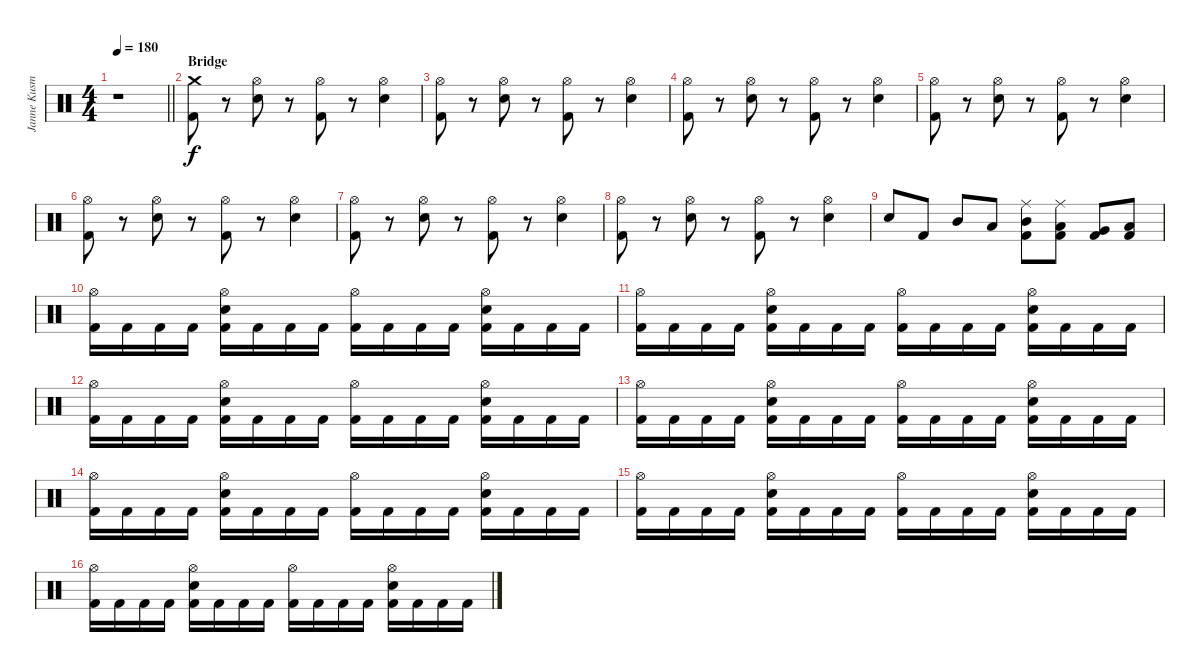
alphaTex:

\track ("Janne Kusmin" "Janne Kusm") {instrument percussion}
\staff {score}
\articulation defaults
\ts (4 4)
\tempo 180
\clef neutral
\barLineRight lightlight
\ks c
r.1{dy f} |
\section ("" "Bridge")
("Kick (hit) 2" "Crash medium (hit)").8 r.8 ("Electric Snare (hit)" "Hi-Hat (open)").8 r.8 ("Kick (hit) 2" "Hi-Hat (open)").8 r.8 ("Electric Snare (hit)" "Hi-Hat (open)").4 |
("Kick (hit) 2" "Hi-Hat (open)").8 r.8 ("Electric Snare (hit)" "Hi-Hat (open)").8 r.8 ("Kick (hit) 2" "Hi-Hat (open)").8 r.8 ("Electric Snare (hit)" "Hi-Hat (open)").4 |
("Kick (hit) 2" "Hi-Hat (open)").8 r.8 ("Electric Snare (hit)" "Hi-Hat (open)").8 r.8 ("Kick (hit) 2" "Hi-Hat (open)").8 r.8 ("Electric Snare (hit)" "Hi-Hat (open)").4 |
("Kick (hit) 2" "Hi-Hat (open)").8 r.8 ("Electric Snare (hit)" "Hi-Hat (open)").8 r.8 ("Kick (hit) 2" "Hi-Hat (open)").8 r.8 ("Electric Snare (hit)" "Hi-Hat (open)").4 |
("Kick (hit) 2" "Hi-Hat (open)").8 r.8 ("Electric Snare (hit)" "Hi-Hat (open)").8 r.8 ("Kick (hit) 2" "Hi-Hat (open)").8 r.8 ("Electric Snare (hit)" "Hi-Hat (open)").4 |
("Kick (hit) 2" "Hi-Hat (open)").8 r.8 ("Electric Snare (hit)" "Hi-Hat (open)").8 r.8 ("Kick (hit) 2" "Hi-Hat (open)").8 r.8 ("Electric Snare (hit)" "Hi-Hat (open)").4 |
("Kick (hit) 2" "Hi-Hat (open)").8 r.8 ("Electric Snare (hit)" "Hi-Hat (open)").8 r.8 ("Kick (hit) 2" "Hi-Hat (open)").8 r.8 ("Electric Snare (hit)" "Hi-Hat (open)").4 |
"Electric Snare (hit)".8 "Kick (hit) 2".8 "Mid Tom (hit)".8 "Low Tom (hit)".8 ("Kick (hit) 2" "Mid Tom (hit)" "Ride (middle)").8 ("Kick (hit) 2" "Low Tom (hit)" "Ride (middle)").8 ("Kick (hit) 2" "Very Low Tom (hit)").8 ("Kick (hit) 2" "Low Floor Tom (hit)").8 |
("Kick (hit) 2" "Hi-Hat (open)").16 "Kick (hit) 2".16 "Kick (hit) 2".16 "Kick (hit) 2".16 ("Kick (hit) 2" "Hi-Hat (open)" "Electric Snare (hit)").16 "Kick (hit) 2".16 "Kick (hit) 2".16 "Kick (hit) 2".16 ("Kick (hit) 2" "Hi-Hat (open)").16 "Kick (hit) 2".16 "Kick (hit) 2".16 "Kick (hit) 2".16 ("Kick (hit) 2" "Hi-Hat (open)" "Electric Snare (hit)").16 "Kick (hit) 2".16 "Kick (hit) 2".16 "Kick (hit) 2".16 |
("Kick (hit) 2" "Hi-Hat (open)").16 "Kick (hit) 2".16 "Kick (hit) 2".16 "Kick (hit) 2".16 ("Kick (hit) 2" "Hi-Hat (open)" "Electric Snare (hit)").16 "Kick (hit) 2".16 "Kick (hit) 2".16 "Kick (hit) 2".16 ("Kick (hit) 2" "Hi-Hat (open)").16 "Kick (hit) 2".16 "Kick (hit) 2".16 "Kick (hit) 2".16 ("Kick (hit) 2" "Hi-Hat (open)" "Electric Snare (hit)").16 "Kick (hit) 2".16 "Kick (hit) 2".16 "Kick (hit) 2".16 |
("Kick (hit) 2" "Hi-Hat (open)").16 "Kick (hit) 2".16 "Kick (hit) 2".16 "Kick (hit) 2".16 ("Kick (hit) 2" "Hi-Hat (open)" "Electric Snare (hit)").16 "Kick (hit) 2".16 "Kick (hit) 2".16 "Kick (hit) 2".16 ("Kick (hit) 2" "Hi-Hat (open)").16 "Kick (hit) 2".16 "Kick (hit) 2".16 "Kick (hit) 2".16 ("Kick (hit) 2" "Hi-Hat (open)" "Electric Snare (hit)").16 "Kick (hit) 2".16 "Kick (hit) 2".16 "Kick (hit) 2".16 |
("Kick (hit) 2" "Hi-Hat (open)").16 "Kick (hit) 2".16 "Kick (hit) 2".16 "Kick (hit) 2".16 ("Kick (hit) 2" "Hi-Hat (open)" "Electric Snare (hit)").16 "Kick (hit) 2".16 "Kick (hit) 2".16 "Kick (hit) 2".16 ("Kick (hit) 2" "Hi-Hat (open)").16 "Kick (hit) 2".16 "Kick (hit) 2".16 "Kick (hit) 2".16 ("Kick (hit) 2" "Hi-Hat (open)" "Electric Snare (hit)").16 "Kick (hit) 2".16 "Kick (hit) 2".16 "Kick (hit) 2".16 |
("Kick (hit) 2" "Hi-Hat (open)").16 "Kick (hit) 2".16 "Kick (hit) 2".16 "Kick (hit) 2".16 ("Kick (hit) 2" "Hi-Hat (open)" "Electric Snare (hit)").16 "Kick (hit) 2".16 "Kick (hit) 2".16 "Kick (hit) 2".16 ("Kick (hit) 2" "Hi-Hat (open)").16 "Kick (hit) 2".16 "Kick (hit) 2".16 "Kick (hit) 2".16 ("Kick (hit) 2" "Hi-Hat (open)" "Electric Snare (hit)").16 "Kick (hit) 2".16 "Kick (hit) 2".16 "Kick (hit) 2".16 |
("Kick (hit) 2" "Hi-Hat (open)").16 "Kick (hit) 2".16 "Kick (hit) 2".16 "Kick (hit) 2".16 ("Kick (hit) 2" "Hi-Hat (open)" "Electric Snare (hit)").16 "Kick (hit) 2".16 "Kick (hit) 2".16 "Kick (hit) 2".16 ("Kick (hit) 2" "Hi-Hat (open)").16 "Kick (hit) 2".16 "Kick (hit) 2".16 "Kick (hit) 2".16 ("Kick (hit) 2" "Hi-Hat (open)" "Electric Snare (hit)").16 "Kick (hit) 2".16 "Kick (hit) 2".16 "Kick (hit) 2".16 |
("Kick (hit) 2" "Hi-Hat (open)").16 "Kick (hit) 2".16 "Kick (hit) 2".16 "Kick (hit) 2".16 ("Kick (hit) 2" "Hi-Hat (open)" "Electric Snare (hit)").16 "Kick (hit) 2".16 "Kick (hit) 2".16 "Kick (hit) 2".16 ("Kick (hit) 2" "Hi-Hat (open)").16 "Kick (hit) 2".16 "Kick (hit) 2".16 "Kick (hit) 2".16 ("Kick (hit) 2" "Hi-Hat (open)" "Electric Snare (hit)").16 "Kick (hit) 2".16 "Kick (hit) 2".16 "Kick (hit) 2".16
